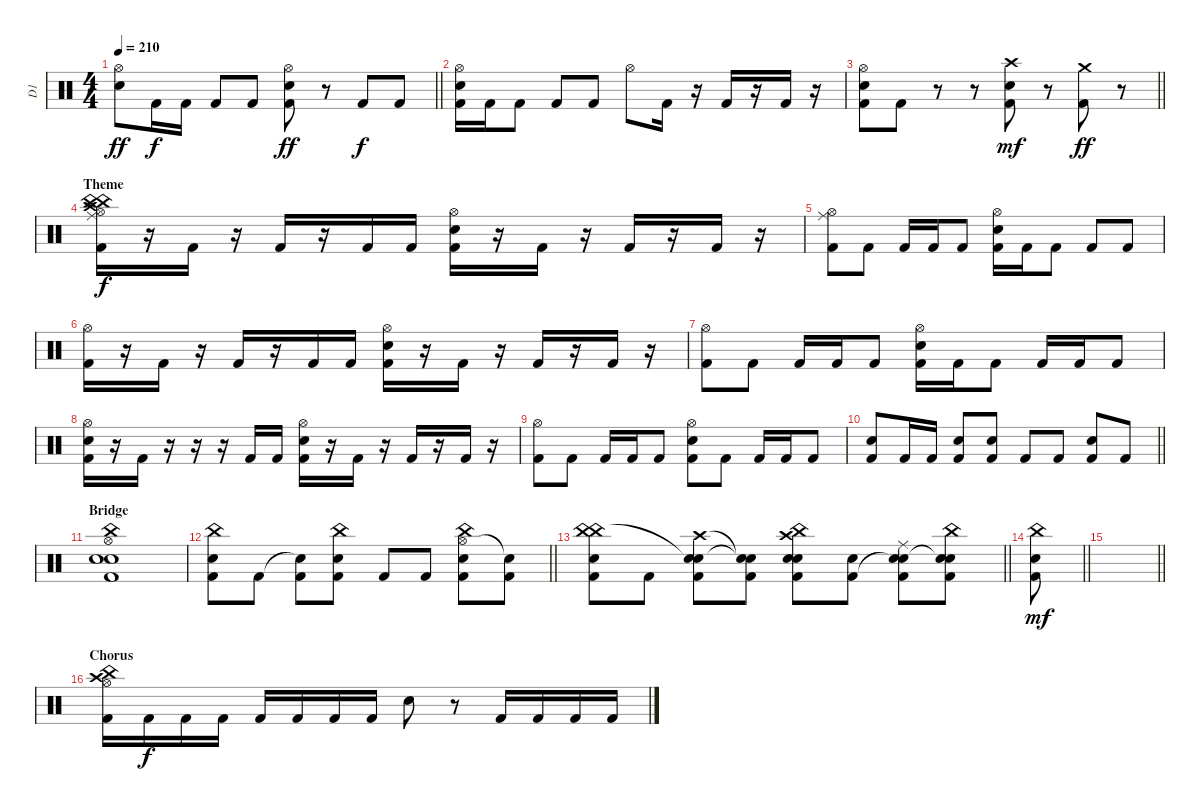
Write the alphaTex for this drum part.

\track ("D1" "D1") {instrument percussion}
\staff {score}
\articulation defaults
\ts (4 4)
\tempo 210
\clef neutral
\barLineRight lightlight
\ks c
("Hi-Hat (open)" "Snare (hit) 2").8{dy ff} "Kick (hit) 2".16{dy f} "Kick (hit) 2".16 "Kick (hit) 2".8 "Kick (hit) 2".8 ("Hi-Hat (open)" "Snare (hit) 2" "Kick (hit) 2").8{dy ff} r.8 "Kick (hit) 2".8{dy f} "Kick (hit) 2".8 |
("Kick (hit) 2" "Snare (hit) 2" "Hi-Hat (open)").16 "Kick (hit) 2".16 "Kick (hit) 2".8 "Kick (hit) 2".8 "Kick (hit) 2".8 "Hi-Hat (open)".8 "Kick (hit) 2".16 r.16 "Kick (hit) 2".16 r.16 "Kick (hit) 2".16 r.16 |
\barLineRight lightlight
("Hi-Hat (open)" "Snare (hit) 2" "Kick (hit) 2").8 "Kick (hit) 2".8 r.8 r.8 ("Crash high (hit)" "Snare (hit) 2" "Kick (hit) 2").8{dy mf} r.8 ("Crash medium (hit)" "Kick (hit) 2").8{dy ff} r.8 |
\section ("" "Theme")
("Hi-Hat (open)" "Kick (hit) 2" "China (hit)" "China (hit)" "Crash high (hit)" "Ride (middle)").16{dy f} r.16 "Kick (hit) 2".16 r.16 "Kick (hit) 2".16 r.16 "Kick (hit) 2".16 "Kick (hit) 2".16 ("Snare (hit) 2" "Kick (hit) 2" "Hi-Hat (open)").16 r.16 "Kick (hit) 2".16 r.16 "Kick (hit) 2".16 r.16 "Kick (hit) 2".16 r.16 |
("Kick (hit) 2" "Hi-Hat (open)" "Ride (middle)").8 "Kick (hit) 2".8 "Kick (hit) 2".16 "Kick (hit) 2".16 "Kick (hit) 2".8 ("Kick (hit) 2" "Snare (hit) 2" "Hi-Hat (open)").16 "Kick (hit) 2".16 "Kick (hit) 2".8 "Kick (hit) 2".8 "Kick (hit) 2".8 |
("Hi-Hat (open)" "Kick (hit) 2").16 r.16 "Kick (hit) 2".16 r.16 "Kick (hit) 2".16 r.16 "Kick (hit) 2".16 "Kick (hit) 2".16 ("Snare (hit) 2" "Kick (hit) 2" "Hi-Hat (open)").16 r.16 "Kick (hit) 2".16 r.16 "Kick (hit) 2".16 r.16 "Kick (hit) 2".16 r.16 |
("Kick (hit) 2" "Hi-Hat (open)").8 "Kick (hit) 2".8 "Kick (hit) 2".16 "Kick (hit) 2".16 "Kick (hit) 2".8 ("Kick (hit) 2" "Snare (hit) 2" "Hi-Hat (open)").16 "Kick (hit) 2".16 "Kick (hit) 2".8 "Kick (hit) 2".16 "Kick (hit) 2".16 "Kick (hit) 2".8 |
("Hi-Hat (open)" "Kick (hit) 2" "Snare (hit) 2").16 r.16 "Kick (hit) 2".16 r.16 r.16 r.16 "Kick (hit) 2".16 "Kick (hit) 2".16 ("Snare (hit) 2" "Kick (hit) 2" "Hi-Hat (open)").16 r.16 "Kick (hit) 2".16 r.16 "Kick (hit) 2".16 r.16 "Kick (hit) 2".16 r.16 |
("Kick (hit) 2" "Hi-Hat (open)").8 "Kick (hit) 2".8 "Kick (hit) 2".16 "Kick (hit) 2".16 "Kick (hit) 2".8 ("Kick (hit) 2" "Snare (hit) 2" "Hi-Hat (open)").8 "Kick (hit) 2".8 "Kick (hit) 2".16 "Kick (hit) 2".16 "Kick (hit) 2".8 |
\barLineRight lightlight
("Kick (hit) 2" "Snare (hit) 2").8 "Kick (hit) 2".16 "Kick (hit) 2".16 ("Kick (hit) 2" "Snare (hit) 2").8 ("Kick (hit) 2" "Snare (hit) 2").8 "Kick (hit) 2".8 "Kick (hit) 2".8 ("Kick (hit) 2" "Snare (hit) 2").8 "Kick (hit) 2".8 |
\section ("" "Bridge")
("China (hit)" "Hi-Hat (open)" "Snare (hit) 2" "Kick (hit) 2" "Snare (hit) 2").1 |
\barLineRight lightlight
("China (hit)" "Snare (hit) 2" "Kick (hit) 2").8 "Kick (hit) 2".8 ("Snare (hit)"{t} "Kick (hit) 2").8 ("China (hit)" "Snare (hit) 2" "Kick (hit) 2").8 "Kick (hit) 2".8 "Kick (hit) 2".8 ("Hi-Hat (open)" "China (hit)" "Snare (hit) 2" "Kick (hit) 2").8 ("Snare (hit)"{t} "Kick (hit) 2").8 |
\barLineRight lightlight
("China (hit)" "China (hit)" "Snare (hit) 2" "Kick (hit) 2").8 "Kick (hit) 2".8 ("Crash high (hit)" "Snare (hit)"{t} "Snare (hit) 2" "Kick (hit) 2").8 ("Snare (hit)"{t} "Snare (hit) 2"{t} "Kick (hit) 2").8 ("China (hit)" "Crash high (hit)" "Snare (hit) 2" "Snare (hit) 2" "Kick (hit) 2").8 ("Snare (hit) 2" "Kick (hit) 2").8 ("Ride (middle)" "Snare (hit)"{t} "Snare (hit) 2" "Kick (hit) 2").8 ("China (hit)" "Snare (hit)"{t} "Snare (hit) 2" "Kick (hit) 2").8 |
\barLineRight lightlight
("China (hit)" "Kick (hit) 2" "Snare (hit) 2").8{dy mf} |
\barLineRight lightlight
|
\section ("" "Chorus")
("China (hit)" "Hi-Hat (open)" "Crash high (hit)" "Kick (hit) 2").16 "Kick (hit) 2".16{dy f} "Kick (hit) 2".16 "Kick (hit) 2".16 "Kick (hit) 2".16 "Kick (hit) 2".16 "Kick (hit) 2".16 "Kick (hit) 2".16 "Snare (hit) 2".8 r.8 "Kick (hit) 2".16 "Kick (hit) 2".16 "Kick (hit) 2".16 "Kick (hit) 2".16
